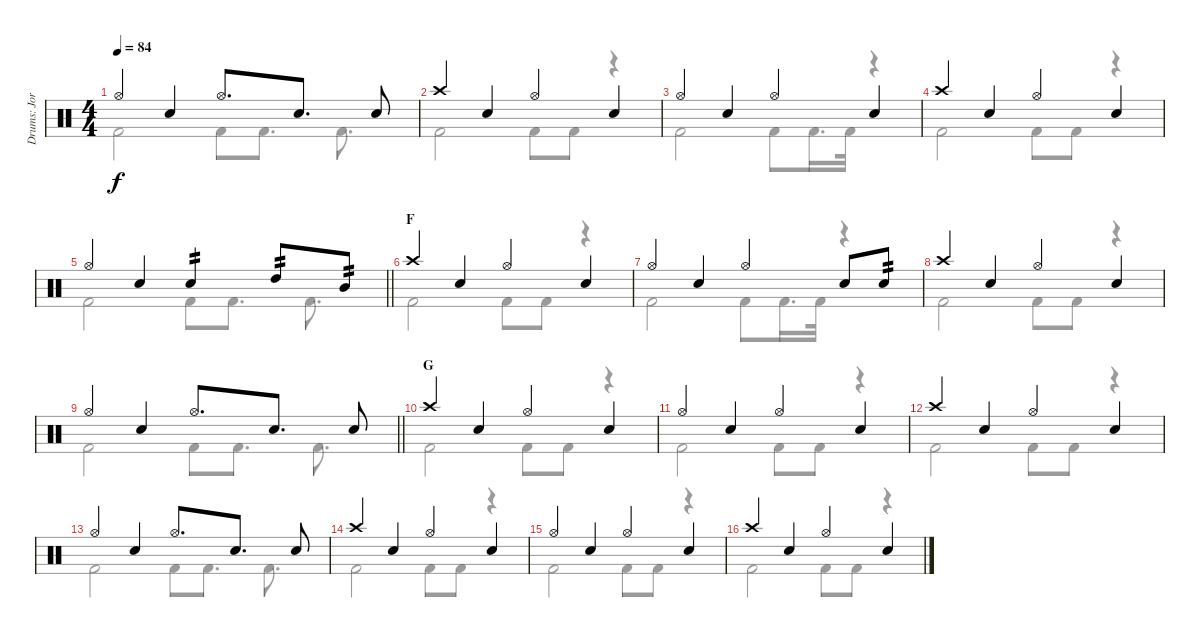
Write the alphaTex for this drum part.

\track ("Drums: Jorg" "Drums: Jor") {instrument percussion}
\staff {score}
\articulation defaults
\voice
\ts (4 4)
\tempo 84
\clef neutral
\ks c "Hi-Hat (open)".4{dy f} "Snare (hit) 2".4 "Hi-Hat (open)".8{d} "Snare (hit) 2".8{d} "Snare (hit) 2".8
|
"Crash high (hit)".4 "Snare (hit) 2".4 "Hi-Hat (open)".4 "Snare (hit) 2".4 |
"Hi-Hat (open)".4 "Snare (hit) 2".4 "Hi-Hat (open)".4 "Snare (hit) 2".4 |
"Crash high (hit)".4 "Snare (hit) 2".4 "Hi-Hat (open)".4 "Snare (hit) 2".4 |
\barLineRight lightlight "Hi-Hat (open)".4 "Snare (hit) 2".4 "Snare (hit) 2".4{tp 2} "High Tom (hit)".8{tp 2} "Mid Tom (hit)".8{tp 2}
|
\section ("" "F")
"Crash high (hit)".4 "Snare (hit) 2".4 "Hi-Hat (open)".4 "Snare (hit) 2".4 |
"Hi-Hat (open)".4 "Snare (hit) 2".4 "Hi-Hat (open)".4 "Snare (hit) 2".8 "Electric Snare (hit)".8{tp 2} |
"Crash high (hit)".4 "Snare (hit) 2".4 "Hi-Hat (open)".4 "Snare (hit) 2".4 |
\barLineRight lightlight "Hi-Hat (open)".4 "Snare (hit) 2".4 "Hi-Hat (open)".8{d} "Snare (hit) 2".8{d} "Snare (hit) 2".8
|
\section ("" "G")
"Crash high (hit)".4 "Snare (hit) 2".4 "Hi-Hat (open)".4 "Snare (hit) 2".4 |
"Hi-Hat (open)".4 "Snare (hit) 2".4 "Hi-Hat (open)".4 "Snare (hit) 2".4 |
"Crash high (hit)".4 "Snare (hit) 2".4 "Hi-Hat (open)".4 "Snare (hit) 2".4 |
"Hi-Hat (open)".4 "Snare (hit) 2".4 "Hi-Hat (open)".8{d} "Snare (hit) 2".8{d} "Snare (hit) 2".8 |
"Crash high (hit)".4 "Snare (hit) 2".4 "Hi-Hat (open)".4 "Snare (hit) 2".4 |
"Hi-Hat (open)".4 "Snare (hit) 2".4 "Hi-Hat (open)".4 "Snare (hit) 2".4 |
"Crash high (hit)".4 "Snare (hit) 2".4 "Hi-Hat (open)".4 "Snare (hit) 2".4
\voice
\clef neutral
\ottava regular
\simile none
\ks c "Kick (hit) 2".2{dy f} "Kick (hit) 2".8 "Kick (hit) 2".8{d} "Kick (hit) 2".8{d}
|
"Kick (hit) 2".2 "Kick (hit) 2".8 "Kick (hit) 2".8 r.4 |
"Kick (hit) 2".2 "Kick (hit) 2".8 "Kick (hit) 2".16{d} "Kick (hit) 2".32 r.4 |
"Kick (hit) 2".2 "Kick (hit) 2".8 "Kick (hit) 2".8 r.4 |
\barLineRight lightlight "Kick (hit) 2".2 "Kick (hit) 2".8 "Kick (hit) 2".8{d} "Kick (hit) 2".8{d}
|
"Kick (hit) 2".2 "Kick (hit) 2".8 "Kick (hit) 2".8 r.4 |
"Kick (hit) 2".2 "Kick (hit) 2".8 "Kick (hit) 2".16{d} "Kick (hit) 2".32 r.4 |
"Kick (hit) 2".2 "Kick (hit) 2".8 "Kick (hit) 2".8 r.4 |
\barLineRight lightlight "Kick (hit) 2".2 "Kick (hit) 2".8 "Kick (hit) 2".8{d} "Kick (hit) 2".8{d}
|
"Kick (hit) 2".2 "Kick (hit) 2".8 "Kick (hit) 2".8 r.4 |
"Kick (hit) 2".2 "Kick (hit) 2".8 "Kick (hit) 2".8 r.4 |
"Kick (hit) 2".2 "Kick (hit) 2".8 "Kick (hit) 2".8 r.4 |
"Kick (hit) 2".2 "Kick (hit) 2".8 "Kick (hit) 2".8{d} "Kick (hit) 2".8{d} |
"Kick (hit) 2".2 "Kick (hit) 2".8 "Kick (hit) 2".8 r.4 |
"Kick (hit) 2".2 "Kick (hit) 2".8 "Kick (hit) 2".8 r.4 |
"Kick (hit) 2".2 "Kick (hit) 2".8 "Kick (hit) 2".8 r.4
